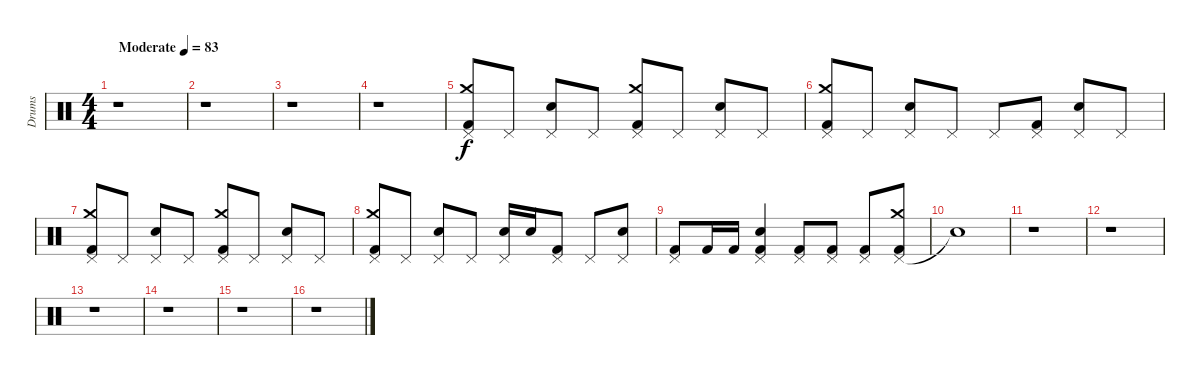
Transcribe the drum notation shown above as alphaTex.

\track ("Drums" "Drums") {instrument percussion}
\staff {score}
\articulation defaults
\ts (4 4)
\tempo (83 "Moderate")
\clef neutral
\ks c
r.1{dy f} |
r.1 |
r.1 |
r.1 |
("Kick (hit) 2" "Crash medium (hit)" "Pedal Hi-Hat (hit)").8 "Pedal Hi-Hat (hit)".8 ("Snare (hit) 2" "Pedal Hi-Hat (hit)").8 "Pedal Hi-Hat (hit)".8 ("Kick (hit) 2" "Crash medium (hit)" "Pedal Hi-Hat (hit)").8 "Pedal Hi-Hat (hit)".8 ("Snare (hit) 2" "Pedal Hi-Hat (hit)").8 "Pedal Hi-Hat (hit)".8 |
("Kick (hit) 2" "Crash medium (hit)" "Pedal Hi-Hat (hit)").8 "Pedal Hi-Hat (hit)".8 ("Snare (hit) 2" "Pedal Hi-Hat (hit)").8 "Pedal Hi-Hat (hit)".8 "Pedal Hi-Hat (hit)".8 ("Kick (hit) 2" "Pedal Hi-Hat (hit)").8 ("Snare (hit) 2" "Pedal Hi-Hat (hit)").8 "Pedal Hi-Hat (hit)".8 |
("Kick (hit) 2" "Pedal Hi-Hat (hit)" "Crash medium (hit)").8 "Pedal Hi-Hat (hit)".8 ("Snare (hit) 2" "Pedal Hi-Hat (hit)").8 "Pedal Hi-Hat (hit)".8 ("Kick (hit) 2" "Pedal Hi-Hat (hit)" "Crash medium (hit)").8 "Pedal Hi-Hat (hit)".8 ("Snare (hit) 2" "Pedal Hi-Hat (hit)").8 "Pedal Hi-Hat (hit)".8 |
("Kick (hit) 2" "Crash medium (hit)" "Pedal Hi-Hat (hit)").8 "Pedal Hi-Hat (hit)".8 ("Snare (hit) 2" "Pedal Hi-Hat (hit)").8 "Pedal Hi-Hat (hit)".8 ("Pedal Hi-Hat (hit)" "Snare (hit) 2").16 "Snare (hit) 2".16 ("Pedal Hi-Hat (hit)" "Kick (hit) 2").8 "Pedal Hi-Hat (hit)".8 ("Snare (hit) 2" "Pedal Hi-Hat (hit)").8 |
("Pedal Hi-Hat (hit)" "Kick (hit) 2").8 "Kick (hit) 2".16 "Kick (hit) 2".16 ("Pedal Hi-Hat (hit)" "Snare (hit) 2" "Kick (hit) 2").4 ("Pedal Hi-Hat (hit)" "Kick (hit) 2").8 ("Pedal Hi-Hat (hit)" "Kick (hit) 2").8 ("Pedal Hi-Hat (hit)" "Kick (hit) 2").8 ("Pedal Hi-Hat (hit)" "Crash medium (hit)" "Kick (hit) 2").8 |
"Snare (hit)"{t}.1 |
r.1 |
r.1 |
r.1 |
r.1 |
r.1 |
r.1
